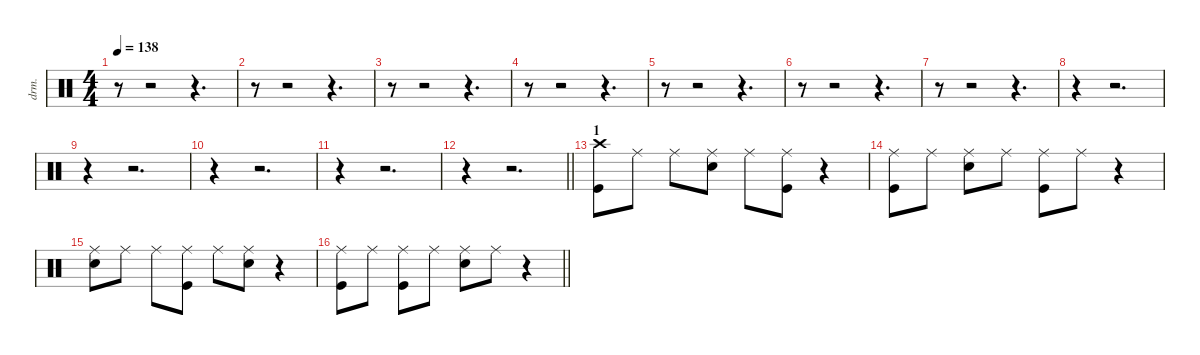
\defaultSystemsLayout 4
\hideDynamics
\bracketExtendMode nobrackets
\track ("Percussions" "drm.") {instrument percussion}
\staff {score}
\articulation defaults
\ts (4 4)
\tempo 138
\clef neutral
\ks aminor
r.8{dy f} r.2 r.4{d} |
r.8 r.2 r.4{d} |
r.8 r.2 r.4{d} |
r.8 r.2 r.4{d} |
r.8 r.2 r.4{d} |
r.8 r.2 r.4{d} |
r.8 r.2 r.4{d} |
r.4 r.2{d} |
r.4 r.2{d} |
r.4 r.2{d} |
r.4 r.2{d} |
\barLineRight lightlight
r.4 r.2{d} |
\section ("" "1")
("Crash high (hit)" "Kick (hit)").8 "Ride (middle)".8{dy mp} "Ride (middle)".8 ("Ride (middle)" "Snare (hit) 2").8{dy f} "Ride (middle)".8{dy mp} ("Ride (middle)" "Kick (hit)").8 r.4 |
("Ride (middle)" "Kick (hit)").8{dy f} "Ride (middle)".8{dy mp} ("Ride (middle)" "Snare (hit) 2").8 "Ride (middle)".8{dy f} ("Ride (middle)" "Kick (hit)").8{dy mp} "Ride (middle)".8 r.4 |
("Ride (middle)" "Snare (hit) 2").8{dy f} "Ride (middle)".8{dy mp} "Ride (middle)".8 ("Ride (middle)" "Kick (hit)").8{dy f} "Ride (middle)".8{dy mp} ("Ride (middle)" "Snare (hit) 2").8 r.4 |
\barLineRight lightlight
("Ride (middle)" "Kick (hit)").8{dy f} "Ride (middle)".8{dy mp} ("Ride (middle)" "Kick (hit)").8 "Ride (middle)".8{dy f} ("Ride (middle)" "Snare (hit) 2").8{dy mp} "Ride (middle)".8 r.4
